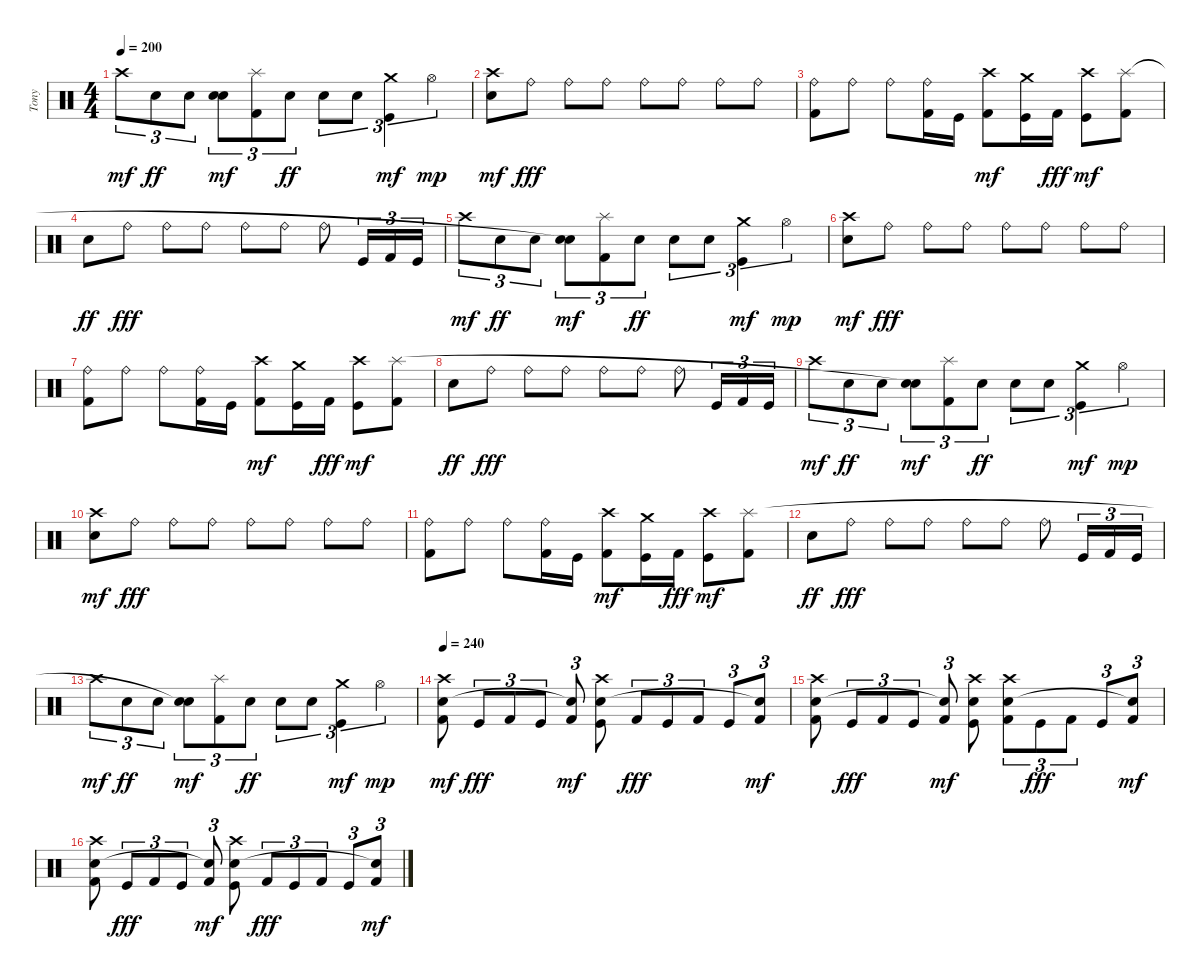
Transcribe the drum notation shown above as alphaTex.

\track ("Tony" "Tony") {instrument percussion}
\staff {score}
\articulation defaults
\ts (4 4)
\tempo 200
\clef neutral
\ks c "Crash high (hit)".8{tu (3 2) dy mf} "Snare (hit) 2".8{tu (3 2) dy ff} "Snare (hit) 2".8{tu (3 2)}
("Snare (hit) 2" "Snare (hit)"{t}).8{tu (3 2) dy mf} ("Kick (hit) 2" "Splash (hit)").8{tu (3 2)} "Snare (hit) 2".8{tu (3 2) dy ff} "Snare (hit) 2".8{tu (3 2)} "Snare (hit) 2".8{tu (3 2)} ("Kick (hit)" "Crash medium (hit)").4{tu (3 2) dy mf} "Hi-Hat (open)".4{tu (3 2) dy mp} |
("Snare (hit) 2" "Crash high (hit)").8{dy mf} "Ride (bell)".8{dy fff} "Ride (bell)".8 "Ride (bell)".8 "Ride (bell)".8 "Ride (bell)".8 "Ride (bell)".8 "Ride (bell)".8 |
("Kick (hit) 2" "Ride (bell)").8 "Ride (bell)".8 "Ride (bell)".8 ("Kick (hit) 2" "Ride (bell)").16 "Kick (hit)".16 ("Kick (hit) 2" "Crash high (hit)").8{dy mf} ("Kick (hit)" "Crash medium (hit)").16 "Kick (hit) 2".16{dy fff} ("Kick (hit)" "Crash high (hit)").8{dy mf} ("Kick (hit) 2" "Splash (hit)").8 |
"Snare (hit) 2".8{dy ff} "Ride (bell)".8{dy fff} "Ride (bell)".8 "Ride (bell)".8 "Ride (bell)".8 "Ride (bell)".8 "Ride (bell)".8 "Kick (hit)".16{tu (3 2)} "Kick (hit) 2".16{tu (3 2)} "Kick (hit)".16{tu (3 2)} |
"Crash high (hit)".8{tu (3 2) dy mf} "Snare (hit) 2".8{tu (3 2) dy ff} "Snare (hit) 2".8{tu (3 2)} ("Snare (hit) 2" "Snare (hit)"{t}).8{tu (3 2) dy mf} ("Kick (hit) 2" "Splash (hit)").8{tu (3 2)} "Snare (hit) 2".8{tu (3 2) dy ff} "Snare (hit) 2".8{tu (3 2)} "Snare (hit) 2".8{tu (3 2)} ("Kick (hit)" "Crash medium (hit)").4{tu (3 2) dy mf} "Hi-Hat (open)".4{tu (3 2) dy mp} |
("Snare (hit) 2" "Crash high (hit)").8{dy mf} "Ride (bell)".8{dy fff} "Ride (bell)".8 "Ride (bell)".8 "Ride (bell)".8 "Ride (bell)".8 "Ride (bell)".8 "Ride (bell)".8 |
("Kick (hit) 2" "Ride (bell)").8 "Ride (bell)".8 "Ride (bell)".8 ("Kick (hit) 2" "Ride (bell)").16 "Kick (hit)".16 ("Kick (hit) 2" "Crash high (hit)").8{dy mf} ("Kick (hit)" "Crash medium (hit)").16 "Kick (hit) 2".16{dy fff} ("Kick (hit)" "Crash high (hit)").8{dy mf} ("Kick (hit) 2" "Splash (hit)").8 |
"Snare (hit) 2".8{dy ff} "Ride (bell)".8{dy fff} "Ride (bell)".8 "Ride (bell)".8 "Ride (bell)".8 "Ride (bell)".8 "Ride (bell)".8 "Kick (hit)".16{tu (3 2)} "Kick (hit) 2".16{tu (3 2)} "Kick (hit)".16{tu (3 2)} |
"Crash high (hit)".8{tu (3 2) dy mf} "Snare (hit) 2".8{tu (3 2) dy ff} "Snare (hit) 2".8{tu (3 2)} ("Snare (hit) 2" "Snare (hit)"{t}).8{tu (3 2) dy mf} ("Kick (hit) 2" "Splash (hit)").8{tu (3 2)} "Snare (hit) 2".8{tu (3 2) dy ff} "Snare (hit) 2".8{tu (3 2)} "Snare (hit) 2".8{tu (3 2)} ("Kick (hit)" "Crash medium (hit)").4{tu (3 2) dy mf} "Hi-Hat (open)".4{tu (3 2) dy mp} |
("Snare (hit) 2" "Crash high (hit)").8{dy mf} "Ride (bell)".8{dy fff} "Ride (bell)".8 "Ride (bell)".8 "Ride (bell)".8 "Ride (bell)".8 "Ride (bell)".8 "Ride (bell)".8 |
("Kick (hit) 2" "Ride (bell)").8 "Ride (bell)".8 "Ride (bell)".8 ("Kick (hit) 2" "Ride (bell)").16 "Kick (hit)".16 ("Kick (hit) 2" "Crash high (hit)").8{dy mf} ("Kick (hit)" "Crash medium (hit)").16 "Kick (hit) 2".16{dy fff} ("Kick (hit)" "Crash high (hit)").8{dy mf} ("Kick (hit) 2" "Splash (hit)").8 |
"Snare (hit) 2".8{dy ff} "Ride (bell)".8{dy fff} "Ride (bell)".8 "Ride (bell)".8 "Ride (bell)".8 "Ride (bell)".8 "Ride (bell)".8 "Kick (hit)".16{tu (3 2)} "Kick (hit) 2".16{tu (3 2)} "Kick (hit)".16{tu (3 2)} |
"Crash high (hit)".8{tu (3 2) dy mf} "Snare (hit) 2".8{tu (3 2) dy ff} "Snare (hit) 2".8{tu (3 2)} ("Snare (hit) 2" "Snare (hit)"{t}).8{tu (3 2) dy mf} ("Kick (hit) 2" "Splash (hit)").8{tu (3 2)} "Snare (hit) 2".8{tu (3 2) dy ff} "Snare (hit) 2".8{tu (3 2)} "Snare (hit) 2".8{tu (3 2)} ("Kick (hit)" "Crash medium (hit)").4{tu (3 2) dy mf} "Hi-Hat (open)".4{tu (3 2) dy mp} |
\tempo 240
("Kick (hit) 2" "Snare (hit) 2" "Crash high (hit)").8{dy mf} "Kick (hit)".8{tu (3 2) dy fff} "Kick (hit) 2".8{tu (3 2)} "Kick (hit)".8{tu (3 2)} ("Kick (hit) 2" "Snare (hit)"{t}).8{tu (3 2) dy mf} ("Kick (hit)" "Snare (hit) 2" "Crash high (hit)").8 "Kick (hit) 2".8{tu (3 2) dy fff} "Kick (hit)".8{tu (3 2)} "Kick (hit) 2".8{tu (3 2)} "Kick (hit)".8{tu (3 2)} ("Kick (hit) 2" "Snare (hit)"{t}).8{tu (3 2) dy mf} |
("Kick (hit) 2" "Snare (hit) 2" "Crash high (hit)").8 "Kick (hit)".8{tu (3 2) dy fff} "Kick (hit) 2".8{tu (3 2)} "Kick (hit)".8{tu (3 2)} ("Kick (hit) 2" "Snare (hit)"{t}).8{tu (3 2) dy mf} ("Kick (hit)" "Snare (hit) 2" "Crash high (hit)").8 ("Kick (hit) 2" "Snare (hit) 2" "Crash high (hit)").8{tu (3 2)} "Kick (hit)".8{tu (3 2) dy fff} "Kick (hit) 2".8{tu (3 2)} "Kick (hit)".8{tu (3 2)} ("Kick (hit) 2" "Snare (hit)"{t}).8{tu (3 2) dy mf} |
("Kick (hit) 2" "Snare (hit) 2" "Crash high (hit)").8 "Kick (hit)".8{tu (3 2) dy fff} "Kick (hit) 2".8{tu (3 2)} "Kick (hit)".8{tu (3 2)} ("Kick (hit) 2" "Snare (hit)"{t}).8{tu (3 2) dy mf} ("Kick (hit)" "Snare (hit) 2" "Crash high (hit)").8 "Kick (hit) 2".8{tu (3 2) dy fff} "Kick (hit)".8{tu (3 2)} "Kick (hit) 2".8{tu (3 2)} "Kick (hit)".8{tu (3 2)} ("Kick (hit) 2" "Snare (hit)"{t}).8{tu (3 2) dy mf}
